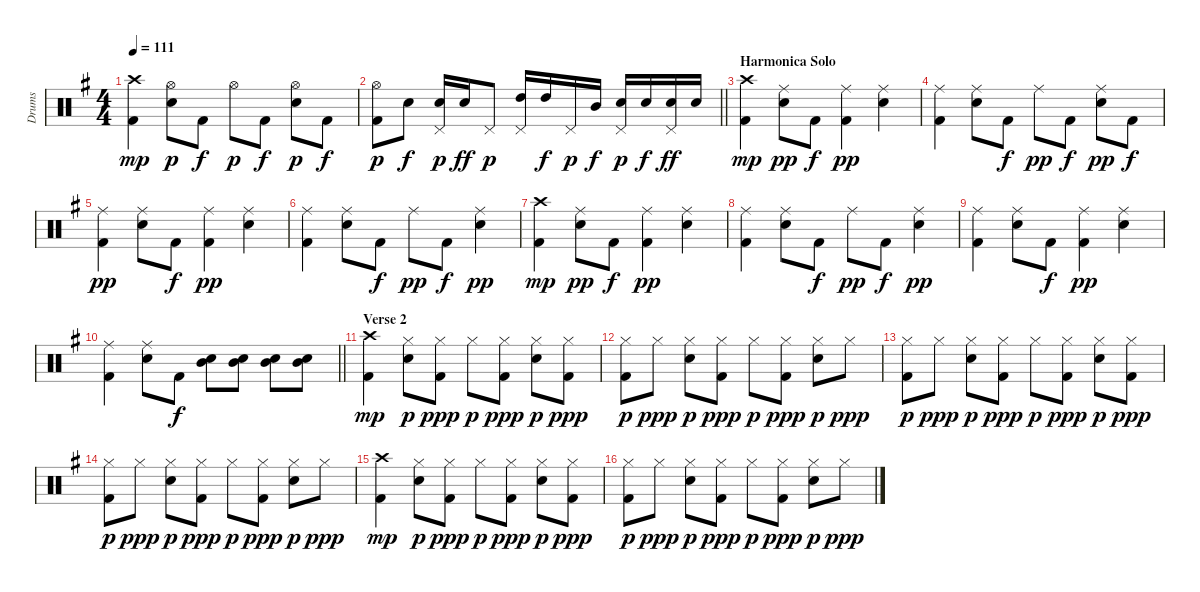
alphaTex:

\track ("Drums" "Drums") {instrument percussion}
\staff {score}
\articulation defaults
\ts (4 4)
\tempo 111
\clef neutral
\ks g
("Kick (hit) 2" "Crash high (hit)").4{dy mp} ("Electric Snare (hit)" "Hi-Hat (open)").8{dy p} "Kick (hit) 2".8{dy f} "Hi-Hat (open)".8{dy p} "Kick (hit) 2".8{dy f} ("Electric Snare (hit)" "Hi-Hat (open)").8{dy p} "Kick (hit) 2".8{dy f} |
\barLineRight lightlight
("Hi-Hat (open)" "Kick (hit) 2").8{dy p} "Electric Snare (hit)".8{dy f} ("Pedal Hi-Hat (hit)" "Electric Snare (hit)").16{dy p} "Electric Snare (hit)".16{dy ff} "Pedal Hi-Hat (hit)".8{dy p} ("Pedal Hi-Hat (hit)" "High Tom (hit)").16 "High Tom (hit)".16{dy f} "Pedal Hi-Hat (hit)".16{dy p} "Mid Tom (hit)".16{dy f} ("Pedal Hi-Hat (hit)" "Electric Snare (hit)").16{dy p} "Electric Snare (hit)".16{dy f} ("Pedal Hi-Hat (hit)" "Electric Snare (hit)").16{dy ff} "Electric Snare (hit)".16 |
\section ("" "Harmonica Solo")
("Crash high (hit)" "Kick (hit) 2").4{dy mp} ("Electric Snare (hit)" "Ride (middle)").8{dy pp} "Kick (hit) 2".8{dy f} ("Kick (hit) 2" "Ride (middle)").4{dy pp} ("Electric Snare (hit)" "Ride (middle)").4 |
("Kick (hit) 2" "Ride (middle)").4 ("Electric Snare (hit)" "Ride (middle)").8 "Kick (hit) 2".8{dy f} "Ride (middle)".8{dy pp} "Kick (hit) 2".8{dy f} ("Electric Snare (hit)" "Ride (middle)").8{dy pp} "Kick (hit) 2".8{dy f} |
("Kick (hit) 2" "Ride (middle)").4{dy pp} ("Electric Snare (hit)" "Ride (middle)").8 "Kick (hit) 2".8{dy f} ("Kick (hit) 2" "Ride (middle)").4{dy pp} ("Electric Snare (hit)" "Ride (middle)").4 |
("Kick (hit) 2" "Ride (middle)").4 ("Electric Snare (hit)" "Ride (middle)").8 "Kick (hit) 2".8{dy f} "Ride (middle)".8{dy pp} "Kick (hit) 2".8{dy f} ("Electric Snare (hit)" "Ride (middle)").4{dy pp} |
("Crash high (hit)" "Kick (hit) 2").4{dy mp} ("Electric Snare (hit)" "Ride (middle)").8{dy pp} "Kick (hit) 2".8{dy f} ("Kick (hit) 2" "Ride (middle)").4{dy pp} ("Electric Snare (hit)" "Ride (middle)").4 |
("Kick (hit) 2" "Ride (middle)").4 ("Electric Snare (hit)" "Ride (middle)").8 "Kick (hit) 2".8{dy f} "Ride (middle)".8{dy pp} "Kick (hit) 2".8{dy f} ("Electric Snare (hit)" "Ride (middle)").4{dy pp} |
("Kick (hit) 2" "Ride (middle)").4 ("Electric Snare (hit)" "Ride (middle)").8 "Kick (hit) 2".8{dy f} ("Kick (hit) 2" "Ride (middle)").4{dy pp} ("Electric Snare (hit)" "Ride (middle)").4 |
\barLineRight lightlight
("Kick (hit) 2" "Ride (middle)").4 ("Electric Snare (hit)" "Ride (middle)").8 "Kick (hit) 2".8{dy f} ("Electric Snare (hit)" "Mid Tom (hit)").8 ("Electric Snare (hit)" "Mid Tom (hit)").8 ("Electric Snare (hit)" "Mid Tom (hit)").8 ("Electric Snare (hit)" "Mid Tom (hit)").8 |
\section ("" "Verse 2")
("Crash high (hit)" "Kick (hit) 2").4{dy mp} ("Hi-Hat (closed)" "Electric Snare (hit)").8{dy p} ("Kick (hit) 2" "Hi-Hat (closed)").8{dy ppp} "Hi-Hat (closed)".8{dy p} ("Kick (hit) 2" "Hi-Hat (closed)").8{dy ppp} ("Hi-Hat (closed)" "Electric Snare (hit)").8{dy p} ("Kick (hit) 2" "Hi-Hat (closed)").8{dy ppp} |
("Hi-Hat (closed)" "Kick (hit) 2").8{dy p} "Hi-Hat (closed)".8{dy ppp} ("Hi-Hat (closed)" "Electric Snare (hit)").8{dy p} ("Kick (hit) 2" "Hi-Hat (closed)").8{dy ppp} "Hi-Hat (closed)".8{dy p} ("Kick (hit) 2" "Hi-Hat (closed)").8{dy ppp} ("Hi-Hat (closed)" "Electric Snare (hit)").8{dy p} "Hi-Hat (closed)".8{dy ppp} |
("Hi-Hat (closed)" "Kick (hit) 2").8{dy p} "Hi-Hat (closed)".8{dy ppp} ("Hi-Hat (closed)" "Electric Snare (hit)").8{dy p} ("Kick (hit) 2" "Hi-Hat (closed)").8{dy ppp} "Hi-Hat (closed)".8{dy p} ("Kick (hit) 2" "Hi-Hat (closed)").8{dy ppp} ("Hi-Hat (closed)" "Electric Snare (hit)").8{dy p} ("Kick (hit) 2" "Hi-Hat (closed)").8{dy ppp} |
("Hi-Hat (closed)" "Kick (hit) 2").8{dy p} "Hi-Hat (closed)".8{dy ppp} ("Hi-Hat (closed)" "Electric Snare (hit)").8{dy p} ("Kick (hit) 2" "Hi-Hat (closed)").8{dy ppp} "Hi-Hat (closed)".8{dy p} ("Kick (hit) 2" "Hi-Hat (closed)").8{dy ppp} ("Hi-Hat (closed)" "Electric Snare (hit)").8{dy p} "Hi-Hat (closed)".8{dy ppp} |
("Crash high (hit)" "Kick (hit) 2").4{dy mp} ("Hi-Hat (closed)" "Electric Snare (hit)").8{dy p} ("Kick (hit) 2" "Hi-Hat (closed)").8{dy ppp} "Hi-Hat (closed)".8{dy p} ("Kick (hit) 2" "Hi-Hat (closed)").8{dy ppp} ("Hi-Hat (closed)" "Electric Snare (hit)").8{dy p} ("Kick (hit) 2" "Hi-Hat (closed)").8{dy ppp} |
("Hi-Hat (closed)" "Kick (hit) 2").8{dy p} "Hi-Hat (closed)".8{dy ppp} ("Hi-Hat (closed)" "Electric Snare (hit)").8{dy p} ("Kick (hit) 2" "Hi-Hat (closed)").8{dy ppp} "Hi-Hat (closed)".8{dy p} ("Kick (hit) 2" "Hi-Hat (closed)").8{dy ppp} ("Hi-Hat (closed)" "Electric Snare (hit)").8{dy p} "Hi-Hat (closed)".8{dy ppp}
